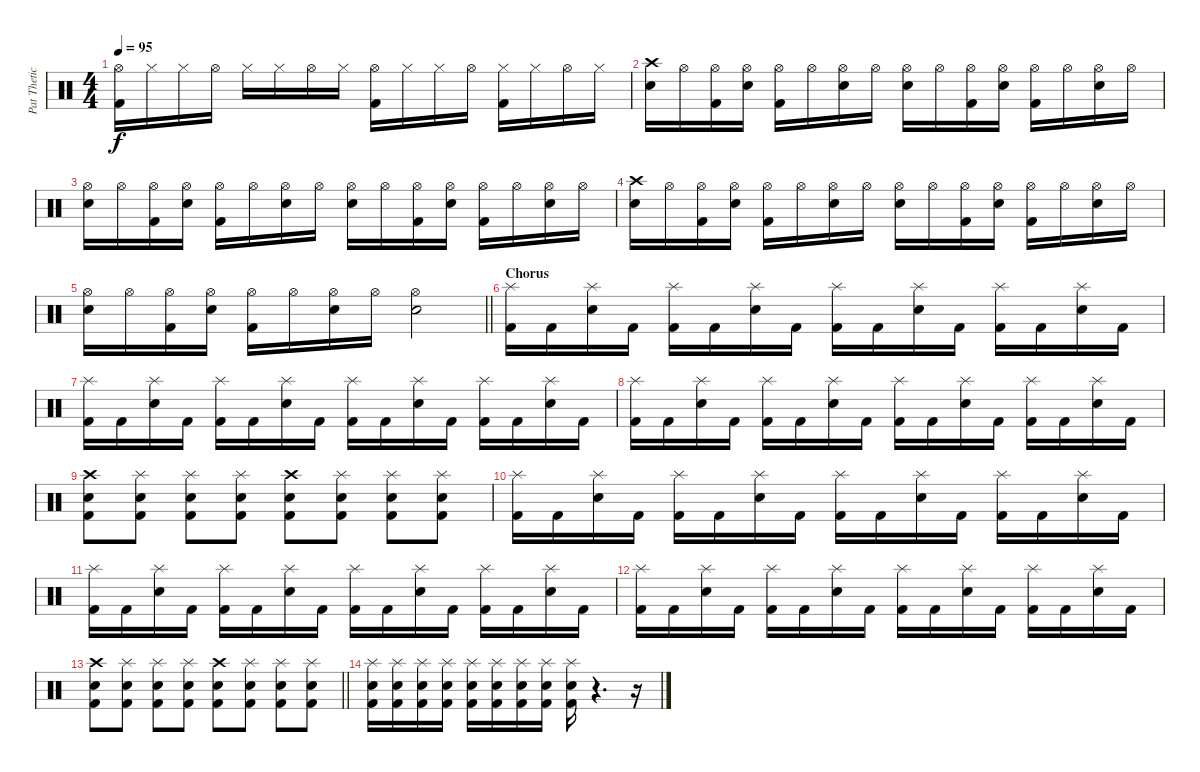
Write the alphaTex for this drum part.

\track ("Pat Thetic" "Pat Thetic") {instrument percussion}
\staff {score}
\articulation defaults
\ts (4 4)
\tempo 95
\clef neutral
\ks c
("Hi-Hat (open)" "Kick (hit) 2").16{dy f} "Hi-Hat (closed)".16 "Hi-Hat (closed)".16 "Hi-Hat (open)".16 "Hi-Hat (closed)".16 "Hi-Hat (closed)".16 "Hi-Hat (open)".16 "Hi-Hat (closed)".16 ("Hi-Hat (open)" "Kick (hit) 2").16 "Hi-Hat (closed)".16 "Hi-Hat (closed)".16 "Hi-Hat (open)".16 ("Hi-Hat (closed)" "Kick (hit) 2").16 "Hi-Hat (closed)".16 "Hi-Hat (open)".16 "Hi-Hat (closed)".16 |
("Snare (hit) 2" "Crash high (hit)").16 "Hi-Hat (open)".16 ("Kick (hit) 2" "Hi-Hat (open)").16 ("Snare (hit) 2" "Hi-Hat (open)").16 ("Kick (hit) 2" "Hi-Hat (open)").16 "Hi-Hat (open)".16 ("Snare (hit) 2" "Hi-Hat (open)").16 "Hi-Hat (open)".16 ("Snare (hit) 2" "Hi-Hat (open)").16 "Hi-Hat (open)".16 ("Kick (hit) 2" "Hi-Hat (open)").16 ("Snare (hit) 2" "Hi-Hat (open)").16 ("Kick (hit) 2" "Hi-Hat (open)").16 "Hi-Hat (open)".16 ("Snare (hit) 2" "Hi-Hat (open)").16 "Hi-Hat (open)".16 |
("Snare (hit) 2" "Hi-Hat (open)").16 "Hi-Hat (open)".16 ("Kick (hit) 2" "Hi-Hat (open)").16 ("Snare (hit) 2" "Hi-Hat (open)").16 ("Kick (hit) 2" "Hi-Hat (open)").16 "Hi-Hat (open)".16 ("Snare (hit) 2" "Hi-Hat (open)").16 "Hi-Hat (open)".16 ("Snare (hit) 2" "Hi-Hat (open)").16 "Hi-Hat (open)".16 ("Kick (hit) 2" "Hi-Hat (open)").16 ("Snare (hit) 2" "Hi-Hat (open)").16 ("Kick (hit) 2" "Hi-Hat (open)").16 "Hi-Hat (open)".16 ("Snare (hit) 2" "Hi-Hat (open)").16 "Hi-Hat (open)".16 |
("Snare (hit) 2" "Crash high (hit)").16 "Hi-Hat (open)".16 ("Kick (hit) 2" "Hi-Hat (open)").16 ("Snare (hit) 2" "Hi-Hat (open)").16 ("Kick (hit) 2" "Hi-Hat (open)").16 "Hi-Hat (open)".16 ("Snare (hit) 2" "Hi-Hat (open)").16 "Hi-Hat (open)".16 ("Snare (hit) 2" "Hi-Hat (open)").16 "Hi-Hat (open)".16 ("Kick (hit) 2" "Hi-Hat (open)").16 ("Snare (hit) 2" "Hi-Hat (open)").16 ("Kick (hit) 2" "Hi-Hat (open)").16 "Hi-Hat (open)".16 ("Snare (hit) 2" "Hi-Hat (open)").16 "Hi-Hat (open)".16 |
\barLineRight lightlight
("Snare (hit) 2" "Hi-Hat (open)").16 "Hi-Hat (open)".16 ("Kick (hit) 2" "Hi-Hat (open)").16 ("Snare (hit) 2" "Hi-Hat (open)").16 ("Kick (hit) 2" "Hi-Hat (open)").16 "Hi-Hat (open)".16 ("Snare (hit) 2" "Hi-Hat (open)").16 "Hi-Hat (open)".16 ("Snare (hit) 2" "Hi-Hat (open)").2 |
\section ("" "Chorus")
("Splash (hit)" "Kick (hit) 2").16 "Kick (hit) 2".16 ("Snare (hit) 2" "Splash (hit)").16 "Kick (hit) 2".16 ("Splash (hit)" "Kick (hit) 2").16 "Kick (hit) 2".16 ("Snare (hit) 2" "Splash (hit)").16 "Kick (hit) 2".16 ("Splash (hit)" "Kick (hit) 2").16 "Kick (hit) 2".16 ("Snare (hit) 2" "Splash (hit)").16 "Kick (hit) 2".16 ("Splash (hit)" "Kick (hit) 2").16 "Kick (hit) 2".16 ("Snare (hit) 2" "Splash (hit)").16 "Kick (hit) 2".16 |
("Splash (hit)" "Kick (hit) 2").16 "Kick (hit) 2".16 ("Snare (hit) 2" "Splash (hit)").16 "Kick (hit) 2".16 ("Splash (hit)" "Kick (hit) 2").16 "Kick (hit) 2".16 ("Snare (hit) 2" "Splash (hit)").16 "Kick (hit) 2".16 ("Splash (hit)" "Kick (hit) 2").16 "Kick (hit) 2".16 ("Snare (hit) 2" "Splash (hit)").16 "Kick (hit) 2".16 ("Splash (hit)" "Kick (hit) 2").16 "Kick (hit) 2".16 ("Snare (hit) 2" "Splash (hit)").16 "Kick (hit) 2".16 |
("Splash (hit)" "Kick (hit) 2").16 "Kick (hit) 2".16 ("Snare (hit) 2" "Splash (hit)").16 "Kick (hit) 2".16 ("Splash (hit)" "Kick (hit) 2").16 "Kick (hit) 2".16 ("Snare (hit) 2" "Splash (hit)").16 "Kick (hit) 2".16 ("Splash (hit)" "Kick (hit) 2").16 "Kick (hit) 2".16 ("Snare (hit) 2" "Splash (hit)").16 "Kick (hit) 2".16 ("Splash (hit)" "Kick (hit) 2").16 "Kick (hit) 2".16 ("Snare (hit) 2" "Splash (hit)").16 "Kick (hit) 2".16 |
("Kick (hit) 2" "Snare (hit) 2" "Crash high (hit)").8 ("Kick (hit) 2" "Snare (hit) 2" "Splash (hit)").8 ("Kick (hit) 2" "Snare (hit) 2" "Splash (hit)").8 ("Kick (hit) 2" "Snare (hit) 2" "Splash (hit)").8 ("Kick (hit) 2" "Snare (hit) 2" "Crash high (hit)").8 ("Kick (hit) 2" "Snare (hit) 2" "Splash (hit)").8 ("Kick (hit) 2" "Snare (hit) 2" "Splash (hit)").8 ("Kick (hit) 2" "Snare (hit) 2" "Splash (hit)").8 |
("Splash (hit)" "Kick (hit) 2").16 "Kick (hit) 2".16 ("Snare (hit) 2" "Splash (hit)").16 "Kick (hit) 2".16 ("Splash (hit)" "Kick (hit) 2").16 "Kick (hit) 2".16 ("Snare (hit) 2" "Splash (hit)").16 "Kick (hit) 2".16 ("Splash (hit)" "Kick (hit) 2").16 "Kick (hit) 2".16 ("Snare (hit) 2" "Splash (hit)").16 "Kick (hit) 2".16 ("Splash (hit)" "Kick (hit) 2").16 "Kick (hit) 2".16 ("Snare (hit) 2" "Splash (hit)").16 "Kick (hit) 2".16 |
("Splash (hit)" "Kick (hit) 2").16 "Kick (hit) 2".16 ("Snare (hit) 2" "Splash (hit)").16 "Kick (hit) 2".16 ("Splash (hit)" "Kick (hit) 2").16 "Kick (hit) 2".16 ("Snare (hit) 2" "Splash (hit)").16 "Kick (hit) 2".16 ("Splash (hit)" "Kick (hit) 2").16 "Kick (hit) 2".16 ("Snare (hit) 2" "Splash (hit)").16 "Kick (hit) 2".16 ("Splash (hit)" "Kick (hit) 2").16 "Kick (hit) 2".16 ("Snare (hit) 2" "Splash (hit)").16 "Kick (hit) 2".16 |
("Splash (hit)" "Kick (hit) 2").16 "Kick (hit) 2".16 ("Snare (hit) 2" "Splash (hit)").16 "Kick (hit) 2".16 ("Splash (hit)" "Kick (hit) 2").16 "Kick (hit) 2".16 ("Snare (hit) 2" "Splash (hit)").16 "Kick (hit) 2".16 ("Splash (hit)" "Kick (hit) 2").16 "Kick (hit) 2".16 ("Snare (hit) 2" "Splash (hit)").16 "Kick (hit) 2".16 ("Splash (hit)" "Kick (hit) 2").16 "Kick (hit) 2".16 ("Snare (hit) 2" "Splash (hit)").16 "Kick (hit) 2".16 |
\barLineRight lightlight
("Kick (hit) 2" "Snare (hit) 2" "Crash high (hit)").8 ("Kick (hit) 2" "Snare (hit) 2" "Splash (hit)").8 ("Kick (hit) 2" "Snare (hit) 2" "Splash (hit)").8 ("Kick (hit) 2" "Snare (hit) 2" "Splash (hit)").8 ("Kick (hit) 2" "Snare (hit) 2" "Crash high (hit)").8 ("Kick (hit) 2" "Snare (hit) 2" "Splash (hit)").8 ("Kick (hit) 2" "Snare (hit) 2" "Splash (hit)").8 ("Kick (hit) 2" "Snare (hit) 2" "Splash (hit)").8 |
("Kick (hit) 2" "Snare (hit) 2" "Splash (hit)").16 ("Kick (hit) 2" "Snare (hit) 2" "Splash (hit)").16 ("Kick (hit) 2" "Snare (hit) 2" "Splash (hit)").16 ("Kick (hit) 2" "Snare (hit) 2" "Splash (hit)").16 ("Kick (hit) 2" "Snare (hit) 2" "Splash (hit)").16 ("Kick (hit) 2" "Snare (hit) 2" "Splash (hit)").16 ("Kick (hit) 2" "Snare (hit) 2" "Splash (hit)").16 ("Kick (hit) 2" "Snare (hit) 2" "Splash (hit)").16 ("Kick (hit) 2" "Snare (hit) 2" "Splash (hit)").16 r.4{d} r.16
